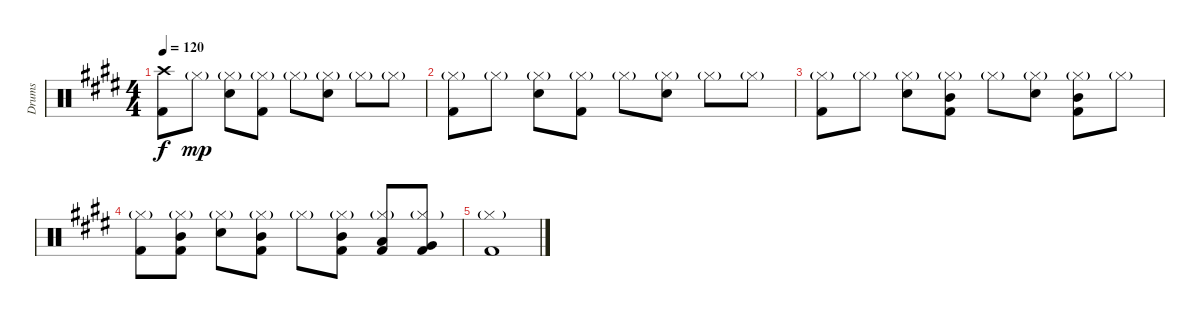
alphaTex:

\track ("Drums" "Drums") {instrument percussion}
\staff {score}
\articulation defaults
\ts (4 4)
\tempo 120
\clef neutral
\ks e
("Crash high (hit)" "Kick (hit) 2").8{dy f} "Hi-Hat (closed)"{g}.8{dy mp} ("Hi-Hat (closed)"{g} "Snare (hit) 2").8 ("Hi-Hat (closed)"{g} "Kick (hit) 2").8 "Hi-Hat (closed)"{g}.8 ("Hi-Hat (closed)"{g} "Snare (hit) 2").8 "Hi-Hat (closed)"{g}.8 "Hi-Hat (closed)"{g}.8 |
("Hi-Hat (closed)"{g} "Kick (hit) 2").8 "Hi-Hat (closed)"{g}.8 ("Hi-Hat (closed)"{g} "Snare (hit) 2").8 ("Hi-Hat (closed)"{g} "Kick (hit) 2").8 "Hi-Hat (closed)"{g}.8 ("Hi-Hat (closed)"{g} "Snare (hit) 2").8 "Hi-Hat (closed)"{g}.8 "Hi-Hat (closed)"{g}.8 |
("Hi-Hat (closed)"{g} "Kick (hit) 2").8 "Hi-Hat (closed)"{g}.8 ("Hi-Hat (closed)"{g} "Snare (hit) 2").8 ("Hi-Hat (closed)"{g} "Mid Tom (hit)" "Kick (hit) 2").8 "Hi-Hat (closed)"{g}.8 ("Hi-Hat (closed)"{g} "Snare (hit) 2").8 ("Hi-Hat (closed)"{g} "Mid Tom (hit)" "Kick (hit) 2").8 "Hi-Hat (closed)"{g}.8 |
("Hi-Hat (closed)"{g} "Kick (hit) 2").8 ("Hi-Hat (closed)"{g} "Mid Tom (hit)" "Kick (hit) 2").8 ("Hi-Hat (closed)"{g} "Snare (hit) 2").8 ("Hi-Hat (closed)"{g} "Mid Tom (hit)" "Kick (hit) 2").8 "Hi-Hat (closed)"{g}.8 ("Hi-Hat (closed)"{g} "Mid Tom (hit)" "Kick (hit) 2").8 ("Hi-Hat (closed)"{g} "Low Tom (hit)" "Kick (hit) 2").8 ("Hi-Hat (closed)"{g} "Very Low Tom (hit)" "Kick (hit) 2").8 |
("Hi-Hat (closed)"{g} "Kick (hit) 2").1
